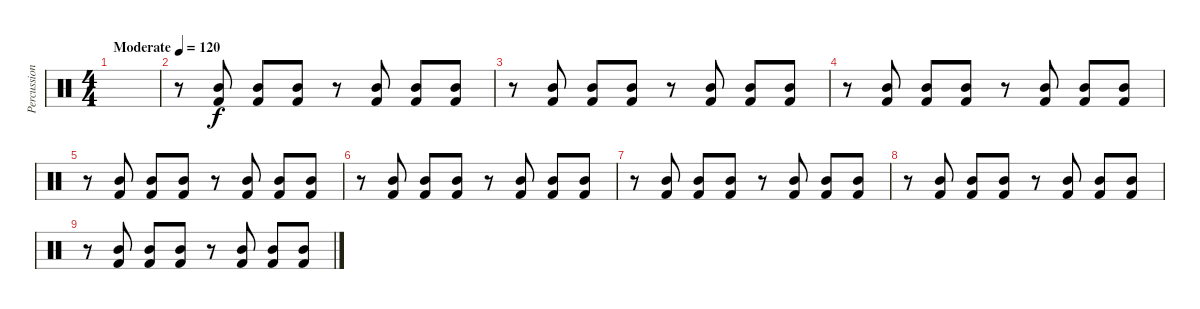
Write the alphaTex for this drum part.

\track ("Percussion" "Percussion") {instrument percussion}
\staff {score}
\articulation defaults
\ts (4 4)
\tempo (120 "Moderate")
\clef neutral
\ks c
|
r.8 ("Mid Tom (hit)" "Kick (hit) 2").8 ("Mid Tom (hit)" "Kick (hit) 2").8 ("Mid Tom (hit)" "Kick (hit) 2").8 r.8 ("Mid Tom (hit)" "Kick (hit) 2").8 ("Mid Tom (hit)" "Kick (hit) 2").8 ("Mid Tom (hit)" "Kick (hit) 2").8 |
r.8 ("Mid Tom (hit)" "Kick (hit) 2").8 ("Mid Tom (hit)" "Kick (hit) 2").8 ("Mid Tom (hit)" "Kick (hit) 2").8 r.8 ("Mid Tom (hit)" "Kick (hit) 2").8 ("Mid Tom (hit)" "Kick (hit) 2").8 ("Mid Tom (hit)" "Kick (hit) 2").8 |
r.8 ("Mid Tom (hit)" "Kick (hit) 2").8 ("Mid Tom (hit)" "Kick (hit) 2").8 ("Mid Tom (hit)" "Kick (hit) 2").8 r.8 ("Mid Tom (hit)" "Kick (hit) 2").8 ("Mid Tom (hit)" "Kick (hit) 2").8 ("Mid Tom (hit)" "Kick (hit) 2").8 |
r.8 ("Mid Tom (hit)" "Kick (hit) 2").8 ("Mid Tom (hit)" "Kick (hit) 2").8 ("Mid Tom (hit)" "Kick (hit) 2").8 r.8 ("Mid Tom (hit)" "Kick (hit) 2").8 ("Mid Tom (hit)" "Kick (hit) 2").8 ("Mid Tom (hit)" "Kick (hit) 2").8 |
r.8 ("Mid Tom (hit)" "Kick (hit) 2").8 ("Mid Tom (hit)" "Kick (hit) 2").8 ("Mid Tom (hit)" "Kick (hit) 2").8 r.8 ("Mid Tom (hit)" "Kick (hit) 2").8 ("Mid Tom (hit)" "Kick (hit) 2").8 ("Mid Tom (hit)" "Kick (hit) 2").8 |
r.8 ("Mid Tom (hit)" "Kick (hit) 2").8 ("Mid Tom (hit)" "Kick (hit) 2").8 ("Mid Tom (hit)" "Kick (hit) 2").8 r.8 ("Mid Tom (hit)" "Kick (hit) 2").8 ("Mid Tom (hit)" "Kick (hit) 2").8 ("Mid Tom (hit)" "Kick (hit) 2").8 |
r.8 ("Mid Tom (hit)" "Kick (hit) 2").8 ("Mid Tom (hit)" "Kick (hit) 2").8 ("Mid Tom (hit)" "Kick (hit) 2").8 r.8 ("Mid Tom (hit)" "Kick (hit) 2").8 ("Mid Tom (hit)" "Kick (hit) 2").8 ("Mid Tom (hit)" "Kick (hit) 2").8 |
r.8 ("Mid Tom (hit)" "Kick (hit) 2").8 ("Mid Tom (hit)" "Kick (hit) 2").8 ("Mid Tom (hit)" "Kick (hit) 2").8 r.8 ("Mid Tom (hit)" "Kick (hit) 2").8 ("Mid Tom (hit)" "Kick (hit) 2").8 ("Mid Tom (hit)" "Kick (hit) 2").8
